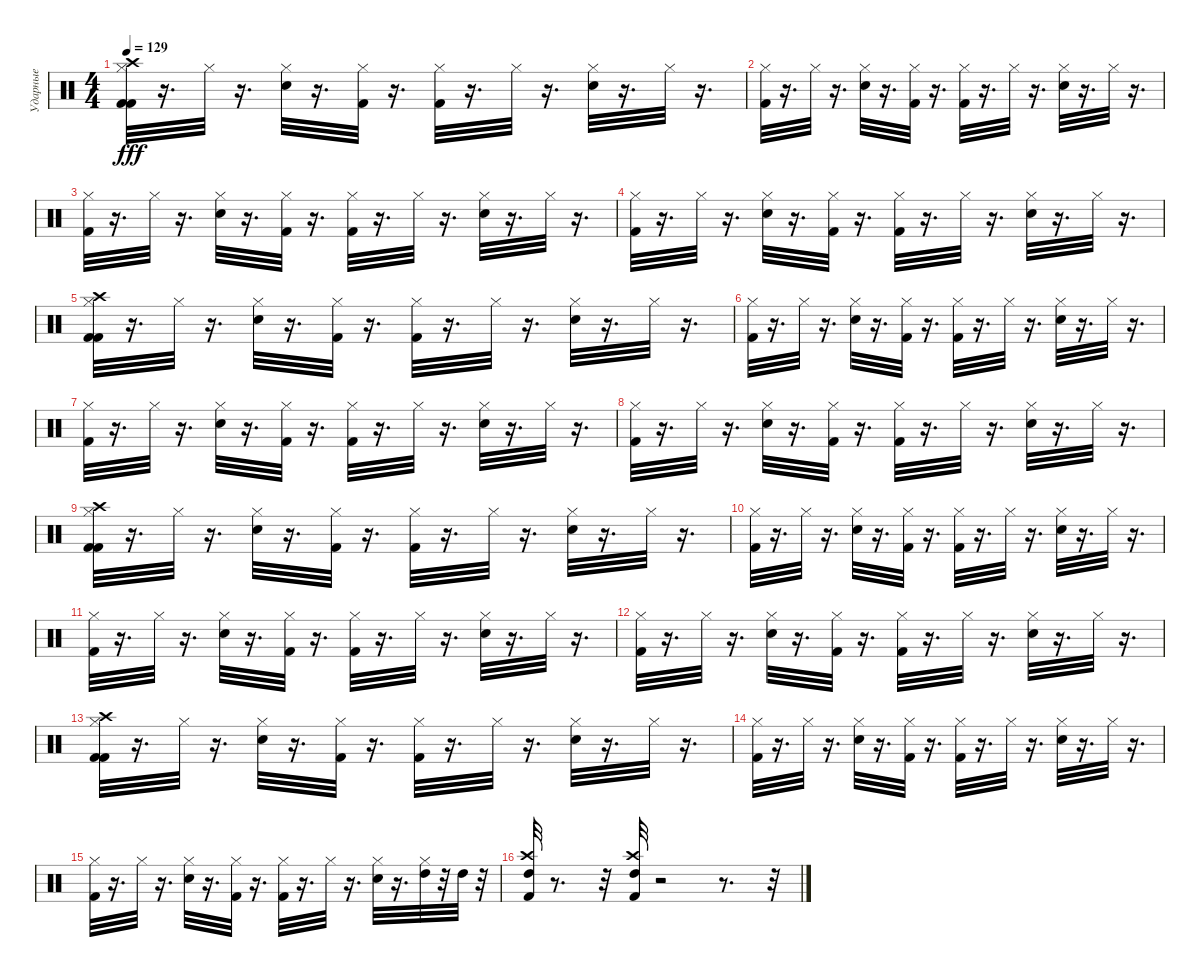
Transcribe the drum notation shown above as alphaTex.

\track ("Ударные" "Ударные") {instrument percussion}
\staff {score}
\articulation defaults
\ts (4 4)
\tempo 129
\clef neutral
\ks c
("Kick (hit) 2" "Crash high (hit)" "Kick (hit) 2" "Hi-Hat (closed)").32{dy fff balance 10} r.16{d} "Hi-Hat (closed)".32{balance 10} r.16{d} ("Electric Snare (hit)" "Hi-Hat (closed)").32{balance 10} r.16{d} ("Kick (hit) 2" "Hi-Hat (closed)").32{balance 10} r.16{d} ("Kick (hit) 2" "Hi-Hat (closed)").32{balance 10} r.16{d} "Hi-Hat (closed)".32{balance 10} r.16{d} ("Electric Snare (hit)" "Hi-Hat (closed)").32{balance 10} r.16{d} "Hi-Hat (closed)".32{balance 10} r.16{d} |
("Kick (hit) 2" "Hi-Hat (closed)").32{balance 10} r.16{d} "Hi-Hat (closed)".32{balance 10} r.16{d} ("Electric Snare (hit)" "Hi-Hat (closed)").32{balance 10} r.16{d} ("Kick (hit) 2" "Hi-Hat (closed)").32{balance 10} r.16{d} ("Kick (hit) 2" "Hi-Hat (closed)").32{balance 10} r.16{d} "Hi-Hat (closed)".32{balance 10} r.16{d} ("Electric Snare (hit)" "Hi-Hat (closed)").32{balance 10} r.16{d} "Hi-Hat (closed)".32{balance 10} r.16{d} |
("Kick (hit) 2" "Hi-Hat (closed)").32{balance 10} r.16{d} "Hi-Hat (closed)".32{balance 10} r.16{d} ("Electric Snare (hit)" "Hi-Hat (closed)").32{balance 10} r.16{d} ("Kick (hit) 2" "Hi-Hat (closed)").32{balance 10} r.16{d} ("Kick (hit) 2" "Hi-Hat (closed)").32{balance 10} r.16{d} "Hi-Hat (closed)".32{balance 10} r.16{d} ("Electric Snare (hit)" "Hi-Hat (closed)").32{balance 10} r.16{d} "Hi-Hat (closed)".32{balance 10} r.16{d} |
("Kick (hit) 2" "Hi-Hat (closed)").32{balance 10} r.16{d} "Hi-Hat (closed)".32{balance 10} r.16{d} ("Electric Snare (hit)" "Hi-Hat (closed)").32{balance 10} r.16{d} ("Kick (hit) 2" "Hi-Hat (closed)").32{balance 10} r.16{d} ("Kick (hit) 2" "Hi-Hat (closed)").32{balance 10} r.16{d} "Hi-Hat (closed)".32{balance 10} r.16{d} ("Electric Snare (hit)" "Hi-Hat (closed)").32{balance 10} r.16{d} "Hi-Hat (closed)".32{balance 10} r.16{d} |
("Kick (hit) 2" "Crash high (hit)" "Kick (hit) 2" "Hi-Hat (closed)").32{balance 10} r.16{d} "Hi-Hat (closed)".32{balance 10} r.16{d} ("Electric Snare (hit)" "Hi-Hat (closed)").32{balance 10} r.16{d} ("Kick (hit) 2" "Hi-Hat (closed)").32{balance 10} r.16{d} ("Kick (hit) 2" "Hi-Hat (closed)").32{balance 10} r.16{d} "Hi-Hat (closed)".32{balance 10} r.16{d} ("Electric Snare (hit)" "Hi-Hat (closed)").32{balance 10} r.16{d} "Hi-Hat (closed)".32{balance 10} r.16{d} |
("Kick (hit) 2" "Hi-Hat (closed)").32{balance 10} r.16{d} "Hi-Hat (closed)".32{balance 10} r.16{d} ("Electric Snare (hit)" "Hi-Hat (closed)").32{balance 10} r.16{d} ("Kick (hit) 2" "Hi-Hat (closed)").32{balance 10} r.16{d} ("Kick (hit) 2" "Hi-Hat (closed)").32{balance 10} r.16{d} "Hi-Hat (closed)".32{balance 10} r.16{d} ("Electric Snare (hit)" "Hi-Hat (closed)").32{balance 10} r.16{d} "Hi-Hat (closed)".32{balance 10} r.16{d} |
("Kick (hit) 2" "Hi-Hat (closed)").32{balance 10} r.16{d} "Hi-Hat (closed)".32{balance 10} r.16{d} ("Electric Snare (hit)" "Hi-Hat (closed)").32{balance 10} r.16{d} ("Kick (hit) 2" "Hi-Hat (closed)").32{balance 10} r.16{d} ("Kick (hit) 2" "Hi-Hat (closed)").32{balance 10} r.16{d} "Hi-Hat (closed)".32{balance 10} r.16{d} ("Electric Snare (hit)" "Hi-Hat (closed)").32{balance 10} r.16{d} "Hi-Hat (closed)".32{balance 10} r.16{d} |
("Kick (hit) 2" "Hi-Hat (closed)").32{balance 10} r.16{d} "Hi-Hat (closed)".32{balance 10} r.16{d} ("Electric Snare (hit)" "Hi-Hat (closed)").32{balance 10} r.16{d} ("Kick (hit) 2" "Hi-Hat (closed)").32{balance 10} r.16{d} ("Kick (hit) 2" "Hi-Hat (closed)").32{balance 10} r.16{d} "Hi-Hat (closed)".32{balance 10} r.16{d} ("Electric Snare (hit)" "Hi-Hat (closed)").32{balance 10} r.16{d} "Hi-Hat (closed)".32{balance 10} r.16{d} |
("Kick (hit) 2" "Crash high (hit)" "Kick (hit) 2" "Hi-Hat (closed)").32{balance 10} r.16{d} "Hi-Hat (closed)".32{balance 10} r.16{d} ("Electric Snare (hit)" "Hi-Hat (closed)").32{balance 10} r.16{d} ("Kick (hit) 2" "Hi-Hat (closed)").32{balance 10} r.16{d} ("Kick (hit) 2" "Hi-Hat (closed)").32{balance 10} r.16{d} "Hi-Hat (closed)".32{balance 10} r.16{d} ("Electric Snare (hit)" "Hi-Hat (closed)").32{balance 10} r.16{d} "Hi-Hat (closed)".32{balance 10} r.16{d} |
("Kick (hit) 2" "Hi-Hat (closed)").32{balance 10} r.16{d} "Hi-Hat (closed)".32{balance 10} r.16{d} ("Electric Snare (hit)" "Hi-Hat (closed)").32{balance 10} r.16{d} ("Kick (hit) 2" "Hi-Hat (closed)").32{balance 10} r.16{d} ("Kick (hit) 2" "Hi-Hat (closed)").32{balance 10} r.16{d} "Hi-Hat (closed)".32{balance 10} r.16{d} ("Electric Snare (hit)" "Hi-Hat (closed)").32{balance 10} r.16{d} "Hi-Hat (closed)".32{balance 10} r.16{d} |
("Kick (hit) 2" "Hi-Hat (closed)").32{balance 10} r.16{d} "Hi-Hat (closed)".32{balance 10} r.16{d} ("Electric Snare (hit)" "Hi-Hat (closed)").32{balance 10} r.16{d} ("Kick (hit) 2" "Hi-Hat (closed)").32{balance 10} r.16{d} ("Kick (hit) 2" "Hi-Hat (closed)").32{balance 10} r.16{d} "Hi-Hat (closed)".32{balance 10} r.16{d} ("Electric Snare (hit)" "Hi-Hat (closed)").32{balance 10} r.16{d} "Hi-Hat (closed)".32{balance 10} r.16{d} |
("Kick (hit) 2" "Hi-Hat (closed)").32{balance 10} r.16{d} "Hi-Hat (closed)".32{balance 10} r.16{d} ("Electric Snare (hit)" "Hi-Hat (closed)").32{balance 10} r.16{d} ("Kick (hit) 2" "Hi-Hat (closed)").32{balance 10} r.16{d} ("Kick (hit) 2" "Hi-Hat (closed)").32{balance 10} r.16{d} "Hi-Hat (closed)".32{balance 10} r.16{d} ("Electric Snare (hit)" "Hi-Hat (closed)").32{balance 10} r.16{d} "Hi-Hat (closed)".32{balance 10} r.16{d} |
("Kick (hit) 2" "Crash high (hit)" "Kick (hit) 2" "Hi-Hat (closed)").32{balance 10} r.16{d} "Hi-Hat (closed)".32{balance 10} r.16{d} ("Electric Snare (hit)" "Hi-Hat (closed)").32{balance 10} r.16{d} ("Kick (hit) 2" "Hi-Hat (closed)").32{balance 10} r.16{d} ("Kick (hit) 2" "Hi-Hat (closed)").32{balance 10} r.16{d} "Hi-Hat (closed)".32{balance 10} r.16{d} ("Electric Snare (hit)" "Hi-Hat (closed)").32{balance 10} r.16{d} "Hi-Hat (closed)".32{balance 10} r.16{d} |
("Kick (hit) 2" "Hi-Hat (closed)").32{balance 10} r.16{d} "Hi-Hat (closed)".32{balance 10} r.16{d} ("Electric Snare (hit)" "Hi-Hat (closed)").32{balance 10} r.16{d} ("Kick (hit) 2" "Hi-Hat (closed)").32{balance 10} r.16{d} ("Kick (hit) 2" "Hi-Hat (closed)").32{balance 10} r.16{d} "Hi-Hat (closed)".32{balance 10} r.16{d} ("Electric Snare (hit)" "Hi-Hat (closed)").32{balance 10} r.16{d} "Hi-Hat (closed)".32{balance 10} r.16{d} |
("Kick (hit) 2" "Hi-Hat (closed)").32{balance 10} r.16{d} "Hi-Hat (closed)".32{balance 10} r.16{d} ("Electric Snare (hit)" "Hi-Hat (closed)").32{balance 10} r.16{d} ("Kick (hit) 2" "Hi-Hat (closed)").32{balance 10} r.16{d} ("Kick (hit) 2" "Hi-Hat (closed)").32{balance 10} r.16{d} "Hi-Hat (closed)".32{balance 10} r.16{d} ("Electric Snare (hit)" "Hi-Hat (closed)").32{balance 10} r.16{d} ("Hi-Hat (closed)" "High Tom (hit)").32{balance 11} r.32 "High Tom (hit)".32{balance 11} r.32 |
("Kick (hit) 2" "High Tom (hit)" "Crash high (hit)").32{balance 8} r.8{d} r.32 ("Kick (hit) 2" "High Tom (hit)" "Crash high (hit)").32{balance 8} r.2 r.8{d} r.32
